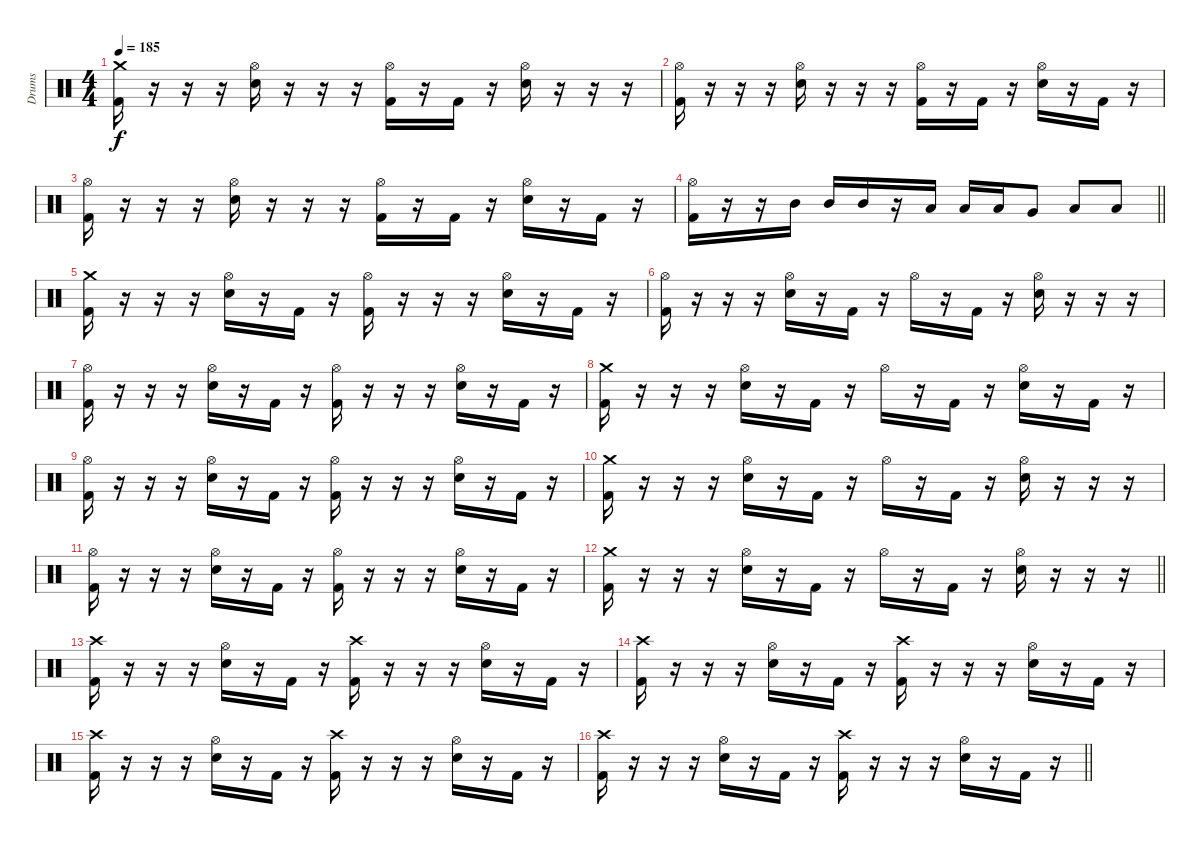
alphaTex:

\track ("Drums" "Drums") {instrument percussion}
\staff {score}
\articulation defaults
\ts (4 4)
\tempo 185
\clef neutral
\ks c
("Crash medium (hit)" "Kick (hit) 2").16{dy f} r.16 r.16 r.16 ("Hi-Hat (open)" "Electric Snare (hit)").16 r.16 r.16 r.16 ("Hi-Hat (open)" "Kick (hit) 2").16 r.16 "Kick (hit) 2".16 r.16 ("Hi-Hat (open)" "Electric Snare (hit)").16 r.16 r.16 r.16 |
("Hi-Hat (open)" "Kick (hit) 2").16 r.16 r.16 r.16 ("Hi-Hat (open)" "Electric Snare (hit)").16 r.16 r.16 r.16 ("Hi-Hat (open)" "Kick (hit) 2").16 r.16 "Kick (hit) 2".16 r.16 ("Hi-Hat (open)" "Electric Snare (hit)").16 r.16 "Kick (hit) 2".16 r.16 |
("Hi-Hat (open)" "Kick (hit) 2").16 r.16 r.16 r.16 ("Hi-Hat (open)" "Electric Snare (hit)").16 r.16 r.16 r.16 ("Hi-Hat (open)" "Kick (hit) 2").16 r.16 "Kick (hit) 2".16 r.16 ("Hi-Hat (open)" "Electric Snare (hit)").16 r.16 "Kick (hit) 2".16 r.16 |
\barLineRight lightlight
("Hi-Hat (open)" "Kick (hit) 2").16 r.16 r.16 "Mid Tom (hit)".16 "Mid Tom (hit)".16 "Mid Tom (hit)".16 r.16 "Low Tom (hit)".16 "Low Tom (hit)".16 "Low Tom (hit)".16 "Very Low Tom (hit)".8 "Low Floor Tom (hit)".8 "Low Floor Tom (hit)".8 |
\section ("" "")
("Crash medium (hit)" "Kick (hit) 2").16 r.16 r.16 r.16 ("Hi-Hat (open)" "Electric Snare (hit)").16 r.16 "Kick (hit) 2".16 r.16 ("Hi-Hat (open)" "Kick (hit) 2").16 r.16 r.16 r.16 ("Hi-Hat (open)" "Electric Snare (hit)").16 r.16 "Kick (hit) 2".16 r.16 |
("Hi-Hat (open)" "Kick (hit) 2").16 r.16 r.16 r.16 ("Hi-Hat (open)" "Electric Snare (hit)").16 r.16 "Kick (hit) 2".16 r.16 "Hi-Hat (open)".16 r.16 "Kick (hit) 2".16 r.16 ("Hi-Hat (open)" "Electric Snare (hit)").16 r.16 r.16 r.16 |
("Hi-Hat (open)" "Kick (hit) 2").16 r.16 r.16 r.16 ("Hi-Hat (open)" "Electric Snare (hit)").16 r.16 "Kick (hit) 2".16 r.16 ("Hi-Hat (open)" "Kick (hit) 2").16 r.16 r.16 r.16 ("Hi-Hat (open)" "Electric Snare (hit)").16 r.16 "Kick (hit) 2".16 r.16 |
("Crash medium (hit)" "Kick (hit) 2").16 r.16 r.16 r.16 ("Hi-Hat (open)" "Electric Snare (hit)").16 r.16 "Kick (hit) 2".16 r.16 "Hi-Hat (open)".16 r.16 "Kick (hit) 2".16 r.16 ("Hi-Hat (open)" "Electric Snare (hit)").16 r.16 "Kick (hit) 2".16 r.16 |
("Hi-Hat (open)" "Kick (hit) 2").16 r.16 r.16 r.16 ("Hi-Hat (open)" "Electric Snare (hit)").16 r.16 "Kick (hit) 2".16 r.16 ("Hi-Hat (open)" "Kick (hit) 2").16 r.16 r.16 r.16 ("Hi-Hat (open)" "Electric Snare (hit)").16 r.16 "Kick (hit) 2".16 r.16 |
("Crash medium (hit)" "Kick (hit) 2").16 r.16 r.16 r.16 ("Hi-Hat (open)" "Electric Snare (hit)").16 r.16 "Kick (hit) 2".16 r.16 "Hi-Hat (open)".16 r.16 "Kick (hit) 2".16 r.16 ("Hi-Hat (open)" "Electric Snare (hit)").16 r.16 r.16 r.16 |
("Hi-Hat (open)" "Kick (hit) 2").16 r.16 r.16 r.16 ("Hi-Hat (open)" "Electric Snare (hit)").16 r.16 "Kick (hit) 2".16 r.16 ("Hi-Hat (open)" "Kick (hit) 2").16 r.16 r.16 r.16 ("Hi-Hat (open)" "Electric Snare (hit)").16 r.16 "Kick (hit) 2".16 r.16 |
\barLineRight lightlight
("Crash medium (hit)" "Kick (hit) 2").16 r.16 r.16 r.16 ("Hi-Hat (open)" "Electric Snare (hit)").16 r.16 "Kick (hit) 2".16 r.16 "Hi-Hat (open)".16 r.16 "Kick (hit) 2".16 r.16 ("Hi-Hat (open)" "Electric Snare (hit)").16 r.16 r.16 r.16 |
("Crash high (hit)" "Kick (hit) 2").16 r.16 r.16 r.16 ("Hi-Hat (open)" "Electric Snare (hit)").16 r.16 "Kick (hit) 2".16 r.16 ("Crash high (hit)" "Kick (hit) 2").16 r.16 r.16 r.16 ("Hi-Hat (open)" "Electric Snare (hit)").16 r.16 "Kick (hit) 2".16 r.16 |
("Crash high (hit)" "Kick (hit) 2").16 r.16 r.16 r.16 ("Hi-Hat (open)" "Electric Snare (hit)").16 r.16 "Kick (hit) 2".16 r.16 ("Crash high (hit)" "Kick (hit) 2").16 r.16 r.16 r.16 ("Hi-Hat (open)" "Electric Snare (hit)").16 r.16 "Kick (hit) 2".16 r.16 |
("Crash high (hit)" "Kick (hit) 2").16 r.16 r.16 r.16 ("Hi-Hat (open)" "Electric Snare (hit)").16 r.16 "Kick (hit) 2".16 r.16 ("Crash high (hit)" "Kick (hit) 2").16 r.16 r.16 r.16 ("Hi-Hat (open)" "Electric Snare (hit)").16 r.16 "Kick (hit) 2".16 r.16 |
\barLineRight lightlight
("Crash high (hit)" "Kick (hit) 2").16 r.16 r.16 r.16 ("Hi-Hat (open)" "Electric Snare (hit)").16 r.16 "Kick (hit) 2".16 r.16 ("Crash high (hit)" "Kick (hit) 2").16 r.16 r.16 r.16 ("Hi-Hat (open)" "Electric Snare (hit)").16 r.16 "Kick (hit) 2".16 r.16
